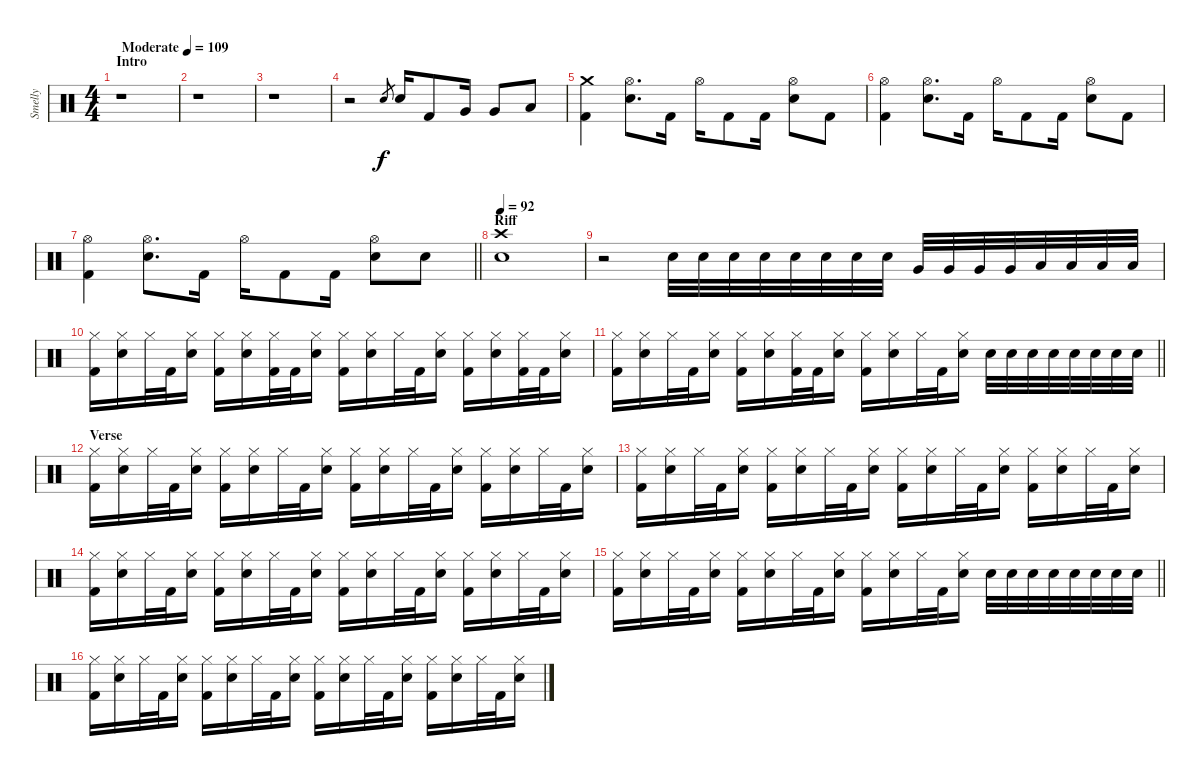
\track ("Smelly" "Smelly") {instrument percussion}
\staff {score}
\articulation defaults
\ts (4 4)
\section ("" "Intro")
\tempo (109 "Moderate")
\clef neutral
\ks c
r.1{dy f} |
r.1 |
r.1 |
r.2 "Electric Snare (hit)".8{gr} "Electric Snare (hit)".16 "Kick (hit) 2".8 "Very Low Tom (hit)".16 "Very Low Tom (hit)".8 "Low Floor Tom (hit)".8 |
("Crash medium (hit)" "Kick (hit) 2").4 ("Hi-Hat (open)" "Electric Snare (hit)").8{d} "Kick (hit) 2".16 "Hi-Hat (open)".16 "Kick (hit) 2".8 "Kick (hit) 2".16 ("Hi-Hat (open)" "Electric Snare (hit)").8 "Kick (hit) 2".8 |
("Hi-Hat (open)" "Kick (hit) 2").4 ("Hi-Hat (open)" "Electric Snare (hit)").8{d} "Kick (hit) 2".16 "Hi-Hat (open)".16 "Kick (hit) 2".8 "Kick (hit) 2".16 ("Hi-Hat (open)" "Electric Snare (hit)").8 "Kick (hit) 2".8 |
\barLineRight lightlight
("Hi-Hat (open)" "Kick (hit) 2").4 ("Hi-Hat (open)" "Electric Snare (hit)").8{d} "Kick (hit) 2".16 "Hi-Hat (open)".16 "Kick (hit) 2".8 "Kick (hit) 2".16 ("Hi-Hat (open)" "Electric Snare (hit)").8 "Electric Snare (hit)".8 |
\section ("" "Riff")
\tempo 92
("Crash high (hit)" "Electric Snare (hit)").1 |
r.2 "Electric Snare (hit)".32 "Electric Snare (hit)".32 "Electric Snare (hit)".32 "Electric Snare (hit)".32 "Electric Snare (hit)".32 "Electric Snare (hit)".32 "Electric Snare (hit)".32 "Electric Snare (hit)".32 "Very Low Tom (hit)".32 "Very Low Tom (hit)".32 "Very Low Tom (hit)".32 "Very Low Tom (hit)".32 "Low Floor Tom (hit)".32 "Low Floor Tom (hit)".32 "Low Floor Tom (hit)".32 "Low Floor Tom (hit)".32 |
("Hi-Hat (closed)" "Kick (hit) 2").16 ("Hi-Hat (closed)" "Electric Snare (hit)").16 "Hi-Hat (closed)".32 "Kick (hit) 2".32 ("Hi-Hat (closed)" "Electric Snare (hit)").16 ("Hi-Hat (closed)" "Kick (hit) 2").16 ("Hi-Hat (closed)" "Electric Snare (hit)").16 ("Hi-Hat (closed)" "Kick (hit) 2").32 "Kick (hit) 2".32 ("Hi-Hat (closed)" "Electric Snare (hit)").16 ("Hi-Hat (closed)" "Kick (hit) 2").16 ("Hi-Hat (closed)" "Electric Snare (hit)").16 "Hi-Hat (closed)".32 "Kick (hit) 2".32 ("Hi-Hat (closed)" "Electric Snare (hit)").16 ("Hi-Hat (closed)" "Kick (hit) 2").16 ("Hi-Hat (closed)" "Electric Snare (hit)").16 ("Hi-Hat (closed)" "Kick (hit) 2").32 "Kick (hit) 2".32 ("Hi-Hat (closed)" "Electric Snare (hit)").16 |
\barLineRight lightlight
("Hi-Hat (closed)" "Kick (hit) 2").16 ("Hi-Hat (closed)" "Electric Snare (hit)").16 "Hi-Hat (closed)".32 "Kick (hit) 2".32 ("Hi-Hat (closed)" "Electric Snare (hit)").16 ("Hi-Hat (closed)" "Kick (hit) 2").16 ("Hi-Hat (closed)" "Electric Snare (hit)").16 ("Hi-Hat (closed)" "Kick (hit) 2").32 "Kick (hit) 2".32 ("Hi-Hat (closed)" "Electric Snare (hit)").16 ("Hi-Hat (closed)" "Kick (hit) 2").16 ("Hi-Hat (closed)" "Electric Snare (hit)").16 "Hi-Hat (closed)".32 "Kick (hit) 2".32 ("Hi-Hat (closed)" "Electric Snare (hit)").16 "Electric Snare (hit)".32 "Electric Snare (hit)".32 "Electric Snare (hit)".32 "Electric Snare (hit)".32 "Electric Snare (hit)".32 "Electric Snare (hit)".32 "Electric Snare (hit)".32 "Electric Snare (hit)".32 |
\section ("" "Verse")
("Hi-Hat (closed)" "Kick (hit) 2").16 ("Hi-Hat (closed)" "Electric Snare (hit)").16 "Hi-Hat (closed)".32 "Kick (hit) 2".32 ("Hi-Hat (closed)" "Electric Snare (hit)").16 ("Hi-Hat (closed)" "Kick (hit) 2").16 ("Hi-Hat (closed)" "Electric Snare (hit)").16 "Hi-Hat (closed)".32 "Kick (hit) 2".32 ("Hi-Hat (closed)" "Electric Snare (hit)").16 ("Hi-Hat (closed)" "Kick (hit) 2").16 ("Hi-Hat (closed)" "Electric Snare (hit)").16 "Hi-Hat (closed)".32 "Kick (hit) 2".32 ("Hi-Hat (closed)" "Electric Snare (hit)").16 ("Hi-Hat (closed)" "Kick (hit) 2").16 ("Hi-Hat (closed)" "Electric Snare (hit)").16 "Hi-Hat (closed)".32 "Kick (hit) 2".32 ("Hi-Hat (closed)" "Electric Snare (hit)").16 |
("Hi-Hat (closed)" "Kick (hit) 2").16 ("Hi-Hat (closed)" "Electric Snare (hit)").16 "Hi-Hat (closed)".32 "Kick (hit) 2".32 ("Hi-Hat (closed)" "Electric Snare (hit)").16 ("Hi-Hat (closed)" "Kick (hit) 2").16 ("Hi-Hat (closed)" "Electric Snare (hit)").16 "Hi-Hat (closed)".32 "Kick (hit) 2".32 ("Hi-Hat (closed)" "Electric Snare (hit)").16 ("Hi-Hat (closed)" "Kick (hit) 2").16 ("Hi-Hat (closed)" "Electric Snare (hit)").16 "Hi-Hat (closed)".32 "Kick (hit) 2".32 ("Hi-Hat (closed)" "Electric Snare (hit)").16 ("Hi-Hat (closed)" "Kick (hit) 2").16 ("Hi-Hat (closed)" "Electric Snare (hit)").16 "Hi-Hat (closed)".32 "Kick (hit) 2".32 ("Hi-Hat (closed)" "Electric Snare (hit)").16 |
("Hi-Hat (closed)" "Kick (hit) 2").16 ("Hi-Hat (closed)" "Electric Snare (hit)").16 "Hi-Hat (closed)".32 "Kick (hit) 2".32 ("Hi-Hat (closed)" "Electric Snare (hit)").16 ("Hi-Hat (closed)" "Kick (hit) 2").16 ("Hi-Hat (closed)" "Electric Snare (hit)").16 "Hi-Hat (closed)".32 "Kick (hit) 2".32 ("Hi-Hat (closed)" "Electric Snare (hit)").16 ("Hi-Hat (closed)" "Kick (hit) 2").16 ("Hi-Hat (closed)" "Electric Snare (hit)").16 "Hi-Hat (closed)".32 "Kick (hit) 2".32 ("Hi-Hat (closed)" "Electric Snare (hit)").16 ("Hi-Hat (closed)" "Kick (hit) 2").16 ("Hi-Hat (closed)" "Electric Snare (hit)").16 "Hi-Hat (closed)".32 "Kick (hit) 2".32 ("Hi-Hat (closed)" "Electric Snare (hit)").16 |
\barLineRight lightlight
("Hi-Hat (closed)" "Kick (hit) 2").16 ("Hi-Hat (closed)" "Electric Snare (hit)").16 "Hi-Hat (closed)".32 "Kick (hit) 2".32 ("Hi-Hat (closed)" "Electric Snare (hit)").16 ("Hi-Hat (closed)" "Kick (hit) 2").16 ("Hi-Hat (closed)" "Electric Snare (hit)").16 "Hi-Hat (closed)".32 "Kick (hit) 2".32 ("Hi-Hat (closed)" "Electric Snare (hit)").16 ("Hi-Hat (closed)" "Kick (hit) 2").16 ("Hi-Hat (closed)" "Electric Snare (hit)").16 "Hi-Hat (closed)".32 "Kick (hit) 2".32 ("Hi-Hat (closed)" "Electric Snare (hit)").16 "Electric Snare (hit)".32 "Electric Snare (hit)".32 "Electric Snare (hit)".32 "Electric Snare (hit)".32 "Electric Snare (hit)".32 "Electric Snare (hit)".32 "Electric Snare (hit)".32 "Electric Snare (hit)".32 |
("Hi-Hat (closed)" "Kick (hit) 2").16 ("Hi-Hat (closed)" "Electric Snare (hit)").16 "Hi-Hat (closed)".32 "Kick (hit) 2".32 ("Hi-Hat (closed)" "Electric Snare (hit)").16 ("Hi-Hat (closed)" "Kick (hit) 2").16 ("Hi-Hat (closed)" "Electric Snare (hit)").16 "Hi-Hat (closed)".32 "Kick (hit) 2".32 ("Hi-Hat (closed)" "Electric Snare (hit)").16 ("Hi-Hat (closed)" "Kick (hit) 2").16 ("Hi-Hat (closed)" "Electric Snare (hit)").16 "Hi-Hat (closed)".32 "Kick (hit) 2".32 ("Hi-Hat (closed)" "Electric Snare (hit)").16 ("Hi-Hat (closed)" "Kick (hit) 2").16 ("Hi-Hat (closed)" "Electric Snare (hit)").16 "Hi-Hat (closed)".32 "Kick (hit) 2".32 ("Hi-Hat (closed)" "Electric Snare (hit)").16
